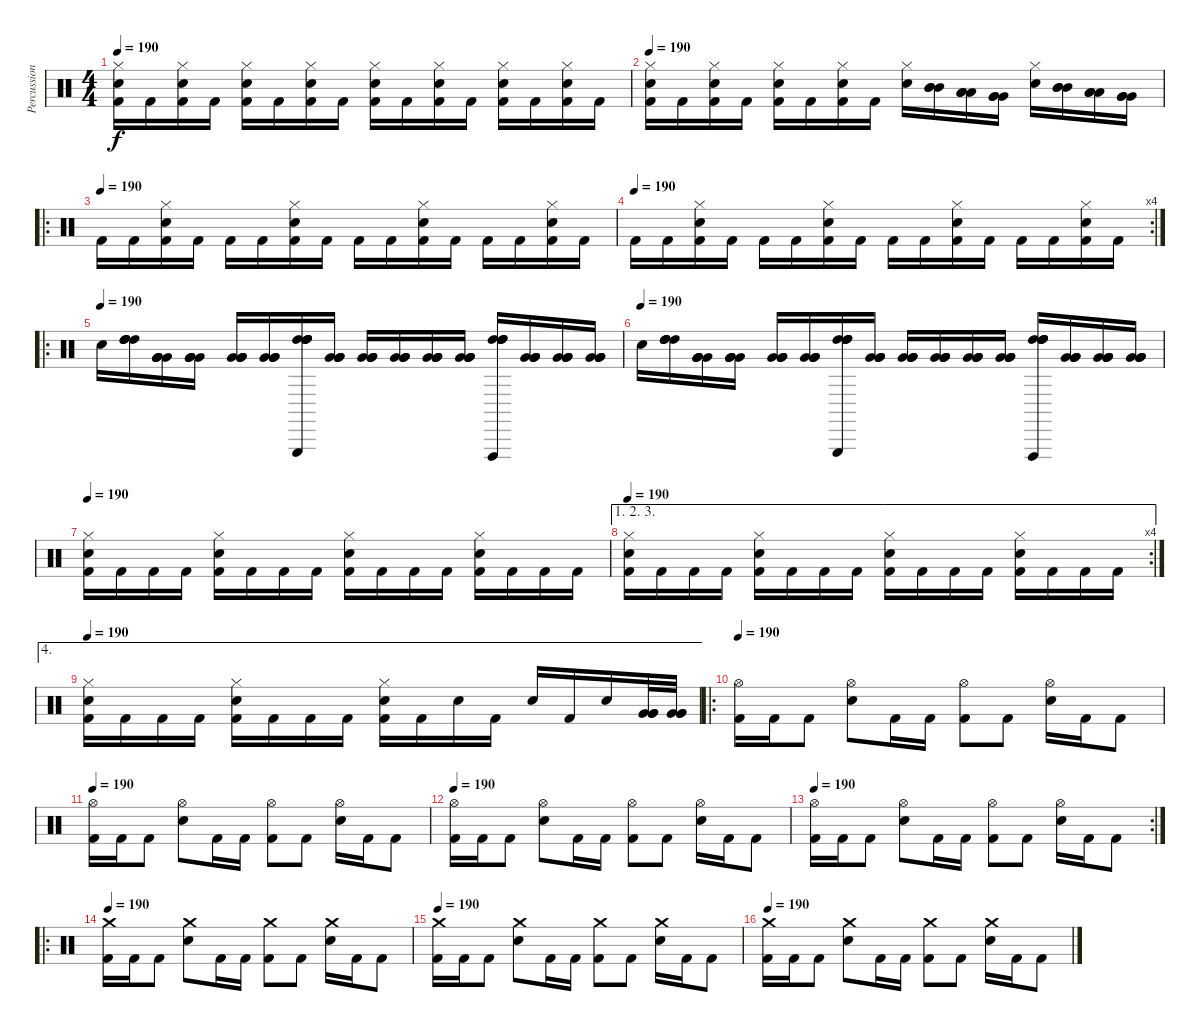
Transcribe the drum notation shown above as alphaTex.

\track ("Percussion" "Percussion") {instrument percussion}
\staff {score}
\articulation defaults
\ts (4 4)
\tempo 190
\clef neutral
\ks c
("Hi-Hat (closed)" "Electric Snare (hit)" "Kick (hit) 2").16{dy f} "Kick (hit) 2".16 ("Hi-Hat (closed)" "Electric Snare (hit)" "Kick (hit) 2").16 "Kick (hit) 2".16 ("Hi-Hat (closed)" "Electric Snare (hit)" "Kick (hit) 2").16 "Kick (hit) 2".16 ("Hi-Hat (closed)" "Electric Snare (hit)" "Kick (hit) 2").16 "Kick (hit) 2".16 ("Hi-Hat (closed)" "Electric Snare (hit)" "Kick (hit) 2").16 "Kick (hit) 2".16 ("Hi-Hat (closed)" "Electric Snare (hit)" "Kick (hit) 2").16 "Kick (hit) 2".16 ("Hi-Hat (closed)" "Electric Snare (hit)" "Kick (hit) 2").16 "Kick (hit) 2".16 ("Hi-Hat (closed)" "Electric Snare (hit)" "Kick (hit) 2").16 "Kick (hit) 2".16 |
\tempo 190
("Hi-Hat (closed)" "Electric Snare (hit)" "Kick (hit) 2").16 "Kick (hit) 2".16 ("Hi-Hat (closed)" "Electric Snare (hit)" "Kick (hit) 2").16 "Kick (hit) 2".16 ("Hi-Hat (closed)" "Electric Snare (hit)" "Kick (hit) 2").16 "Kick (hit) 2".16 ("Hi-Hat (closed)" "Electric Snare (hit)" "Kick (hit) 2").16 "Kick (hit) 2".16 ("Hi-Hat (closed)" "Electric Snare (hit)").16 ("Mid Tom (hit)" "Mid Tom (hit)" "Mid Tom (hit)").16 ("Low Tom (hit)" "Low Tom (hit)" "Low Tom (hit)").16 ("Very Low Tom (hit)" "Very Low Tom (hit)" "Very Low Tom (hit)").16 ("Hi-Hat (closed)" "Electric Snare (hit)").16 ("Mid Tom (hit)" "Mid Tom (hit)" "Mid Tom (hit)").16 ("Low Tom (hit)" "Low Tom (hit)" "Low Tom (hit)").16 ("Very Low Tom (hit)" "Very Low Tom (hit)" "Very Low Tom (hit)").16 |
\ro
\tempo (190)
"Kick (hit) 2".16 "Kick (hit) 2".16 ("Hi-Hat (closed)" "Electric Snare (hit)" "Kick (hit) 2").16 "Kick (hit) 2".16 "Kick (hit) 2".16 "Kick (hit) 2".16 ("Hi-Hat (closed)" "Electric Snare (hit)" "Kick (hit) 2").16 "Kick (hit) 2".16 "Kick (hit) 2".16 "Kick (hit) 2".16 ("Hi-Hat (closed)" "Electric Snare (hit)" "Kick (hit) 2").16 "Kick (hit) 2".16 "Kick (hit) 2".16 "Kick (hit) 2".16 ("Hi-Hat (closed)" "Electric Snare (hit)" "Kick (hit) 2").16 "Kick (hit) 2".16 |
\rc 4
\tempo (190)
"Kick (hit) 2".16 "Kick (hit) 2".16 ("Hi-Hat (closed)" "Electric Snare (hit)" "Kick (hit) 2").16 "Kick (hit) 2".16 "Kick (hit) 2".16 "Kick (hit) 2".16 ("Hi-Hat (closed)" "Electric Snare (hit)" "Kick (hit) 2").16 "Kick (hit) 2".16 "Kick (hit) 2".16 "Kick (hit) 2".16 ("Hi-Hat (closed)" "Electric Snare (hit)" "Kick (hit) 2").16 "Kick (hit) 2".16 "Kick (hit) 2".16 "Kick (hit) 2".16 ("Hi-Hat (closed)" "Electric Snare (hit)" "Kick (hit) 2").16 "Kick (hit) 2".16 |
\ro
\tempo (190)
"Electric Snare (hit)".16 ("High Tom (hit)" "High Tom (hit)" "High Tom (hit)" "High Tom (hit)").16 ("Very Low Tom (hit)" "Very Low Tom (hit)" "Very Low Tom (hit)" "Very Low Tom (hit)").16 ("Very Low Tom (hit)" "Very Low Tom (hit)" "Very Low Tom (hit)" "Very Low Tom (hit)").16 ("Very Low Tom (hit)" "Very Low Tom (hit)" "Very Low Tom (hit)" "Very Low Tom (hit)").16 ("Very Low Tom (hit)" "Very Low Tom (hit)" "Very Low Tom (hit)" "Very Low Tom (hit)").16 ("Triangle (hit)" "High Tom (hit)" "High Tom (hit)" "High Tom (hit)" "High Tom (hit)").16 ("Very Low Tom (hit)" "Very Low Tom (hit)" "Very Low Tom (hit)" "Very Low Tom (hit)").16 ("Very Low Tom (hit)" "Very Low Tom (hit)" "Very Low Tom (hit)" "Very Low Tom (hit)").16 ("Very Low Tom (hit)" "Very Low Tom (hit)" "Very Low Tom (hit)" "Very Low Tom (hit)").16 ("Very Low Tom (hit)" "Very Low Tom (hit)" "Very Low Tom (hit)" "Very Low Tom (hit)").16 ("Very Low Tom (hit)" "Very Low Tom (hit)" "Very Low Tom (hit)" "Very Low Tom (hit)").16 ("Vibraslap (hit)" "High Tom (hit)" "High Tom (hit)" "High Tom (hit)" "High Tom (hit)").16 ("Very Low Tom (hit)" "Very Low Tom (hit)" "Very Low Tom (hit)" "Very Low Tom (hit)").16 ("Very Low Tom (hit)" "Very Low Tom (hit)" "Very Low Tom (hit)" "Very Low Tom (hit)").16 ("Very Low Tom (hit)" "Very Low Tom (hit)" "Very Low Tom (hit)" "Very Low Tom (hit)").16 |
\tempo (190)
"Electric Snare (hit)".16 ("High Tom (hit)" "High Tom (hit)" "High Tom (hit)" "High Tom (hit)").16 ("Very Low Tom (hit)" "Very Low Tom (hit)" "Very Low Tom (hit)" "Very Low Tom (hit)").16 ("Very Low Tom (hit)" "Very Low Tom (hit)" "Very Low Tom (hit)" "Very Low Tom (hit)").16 ("Very Low Tom (hit)" "Very Low Tom (hit)" "Very Low Tom (hit)" "Very Low Tom (hit)").16 ("Very Low Tom (hit)" "Very Low Tom (hit)" "Very Low Tom (hit)" "Very Low Tom (hit)").16 ("Triangle (hit)" "High Tom (hit)" "High Tom (hit)" "High Tom (hit)" "High Tom (hit)").16 ("Very Low Tom (hit)" "Very Low Tom (hit)" "Very Low Tom (hit)" "Very Low Tom (hit)").16 ("Very Low Tom (hit)" "Very Low Tom (hit)" "Very Low Tom (hit)" "Very Low Tom (hit)").16 ("Very Low Tom (hit)" "Very Low Tom (hit)" "Very Low Tom (hit)" "Very Low Tom (hit)").16 ("Very Low Tom (hit)" "Very Low Tom (hit)" "Very Low Tom (hit)" "Very Low Tom (hit)").16 ("Very Low Tom (hit)" "Very Low Tom (hit)" "Very Low Tom (hit)" "Very Low Tom (hit)").16 ("Vibraslap (hit)" "High Tom (hit)" "High Tom (hit)" "High Tom (hit)" "High Tom (hit)").16 ("Very Low Tom (hit)" "Very Low Tom (hit)" "Very Low Tom (hit)" "Very Low Tom (hit)").16 ("Very Low Tom (hit)" "Very Low Tom (hit)" "Very Low Tom (hit)" "Very Low Tom (hit)").16 ("Very Low Tom (hit)" "Very Low Tom (hit)" "Very Low Tom (hit)" "Very Low Tom (hit)").16 |
\tempo 190
("Hi-Hat (closed)" "Electric Snare (hit)" "Kick (hit) 2").16 "Kick (hit) 2".16 "Kick (hit) 2".16 "Kick (hit) 2".16 ("Hi-Hat (closed)" "Electric Snare (hit)" "Kick (hit) 2").16 "Kick (hit) 2".16 "Kick (hit) 2".16 "Kick (hit) 2".16 ("Hi-Hat (closed)" "Electric Snare (hit)" "Kick (hit) 2").16 "Kick (hit) 2".16 "Kick (hit) 2".16 "Kick (hit) 2".16 ("Hi-Hat (closed)" "Electric Snare (hit)" "Kick (hit) 2").16 "Kick (hit) 2".16 "Kick (hit) 2".16 "Kick (hit) 2".16 |
\ae (1 2 3)
\rc 4
\tempo 190
("Hi-Hat (closed)" "Electric Snare (hit)" "Kick (hit) 2").16 "Kick (hit) 2".16 "Kick (hit) 2".16 "Kick (hit) 2".16 ("Hi-Hat (closed)" "Electric Snare (hit)" "Kick (hit) 2").16 "Kick (hit) 2".16 "Kick (hit) 2".16 "Kick (hit) 2".16 ("Hi-Hat (closed)" "Electric Snare (hit)" "Kick (hit) 2").16 "Kick (hit) 2".16 "Kick (hit) 2".16 "Kick (hit) 2".16 ("Hi-Hat (closed)" "Electric Snare (hit)" "Kick (hit) 2").16 "Kick (hit) 2".16 "Kick (hit) 2".16 "Kick (hit) 2".16 |
\ae 4
\tempo 190
("Hi-Hat (closed)" "Electric Snare (hit)" "Kick (hit) 2").16 "Kick (hit) 2".16 "Kick (hit) 2".16 "Kick (hit) 2".16 ("Hi-Hat (closed)" "Electric Snare (hit)" "Kick (hit) 2").16 "Kick (hit) 2".16 "Kick (hit) 2".16 "Kick (hit) 2".16 ("Hi-Hat (closed)" "Electric Snare (hit)" "Kick (hit) 2").16 "Kick (hit) 2".16 "Electric Snare (hit)".16 "Kick (hit) 2".16 "Electric Snare (hit)".16 "Kick (hit) 2".16 "Electric Snare (hit)".16 ("Very Low Tom (hit)" "Very Low Tom (hit)" "Very Low Tom (hit)").32 ("Very Low Tom (hit)" "Very Low Tom (hit)" "Very Low Tom (hit)").32 |
\ro
\tempo 190
("Hi-Hat (open)" "Kick (hit) 2").16 "Kick (hit) 2".16 "Kick (hit) 2".8 ("Hi-Hat (open)" "Electric Snare (hit)").8 "Kick (hit) 2".16 "Kick (hit) 2".16 ("Hi-Hat (open)" "Kick (hit) 2").8 "Kick (hit) 2".8 ("Hi-Hat (open)" "Electric Snare (hit)").16 "Kick (hit) 2".16 "Kick (hit) 2".8 |
\tempo 190
("Hi-Hat (open)" "Kick (hit) 2").16 "Kick (hit) 2".16 "Kick (hit) 2".8 ("Hi-Hat (open)" "Electric Snare (hit)").8 "Kick (hit) 2".16 "Kick (hit) 2".16 ("Hi-Hat (open)" "Kick (hit) 2").8 "Kick (hit) 2".8 ("Hi-Hat (open)" "Electric Snare (hit)").16 "Kick (hit) 2".16 "Kick (hit) 2".8 |
\tempo 190
("Hi-Hat (open)" "Kick (hit) 2").16 "Kick (hit) 2".16 "Kick (hit) 2".8 ("Hi-Hat (open)" "Electric Snare (hit)").8 "Kick (hit) 2".16 "Kick (hit) 2".16 ("Hi-Hat (open)" "Kick (hit) 2").8 "Kick (hit) 2".8 ("Hi-Hat (open)" "Electric Snare (hit)").16 "Kick (hit) 2".16 "Kick (hit) 2".8 |
\rc 2
\tempo 190
("Hi-Hat (open)" "Kick (hit) 2").16 "Kick (hit) 2".16 "Kick (hit) 2".8 ("Hi-Hat (open)" "Electric Snare (hit)").8 "Kick (hit) 2".16 "Kick (hit) 2".16 ("Hi-Hat (open)" "Kick (hit) 2").8 "Kick (hit) 2".8 ("Hi-Hat (open)" "Electric Snare (hit)").16 "Kick (hit) 2".16 "Kick (hit) 2".8 |
\ro
\tempo 190
("Crash medium (hit)" "Kick (hit) 2").16 "Kick (hit) 2".16 "Kick (hit) 2".8 ("Crash medium (hit)" "Electric Snare (hit)").8 "Kick (hit) 2".16 "Kick (hit) 2".16 ("Crash medium (hit)" "Kick (hit) 2").8 "Kick (hit) 2".8 ("Crash medium (hit)" "Electric Snare (hit)").16 "Kick (hit) 2".16 "Kick (hit) 2".8 |
\tempo 190
("Crash medium (hit)" "Kick (hit) 2").16 "Kick (hit) 2".16 "Kick (hit) 2".8 ("Crash medium (hit)" "Electric Snare (hit)").8 "Kick (hit) 2".16 "Kick (hit) 2".16 ("Crash medium (hit)" "Kick (hit) 2").8 "Kick (hit) 2".8 ("Crash medium (hit)" "Electric Snare (hit)").16 "Kick (hit) 2".16 "Kick (hit) 2".8 |
\tempo 190
("Crash medium (hit)" "Kick (hit) 2").16 "Kick (hit) 2".16 "Kick (hit) 2".8 ("Crash medium (hit)" "Electric Snare (hit)").8 "Kick (hit) 2".16 "Kick (hit) 2".16 ("Crash medium (hit)" "Kick (hit) 2").8 "Kick (hit) 2".8 ("Crash medium (hit)" "Electric Snare (hit)").16 "Kick (hit) 2".16 "Kick (hit) 2".8
